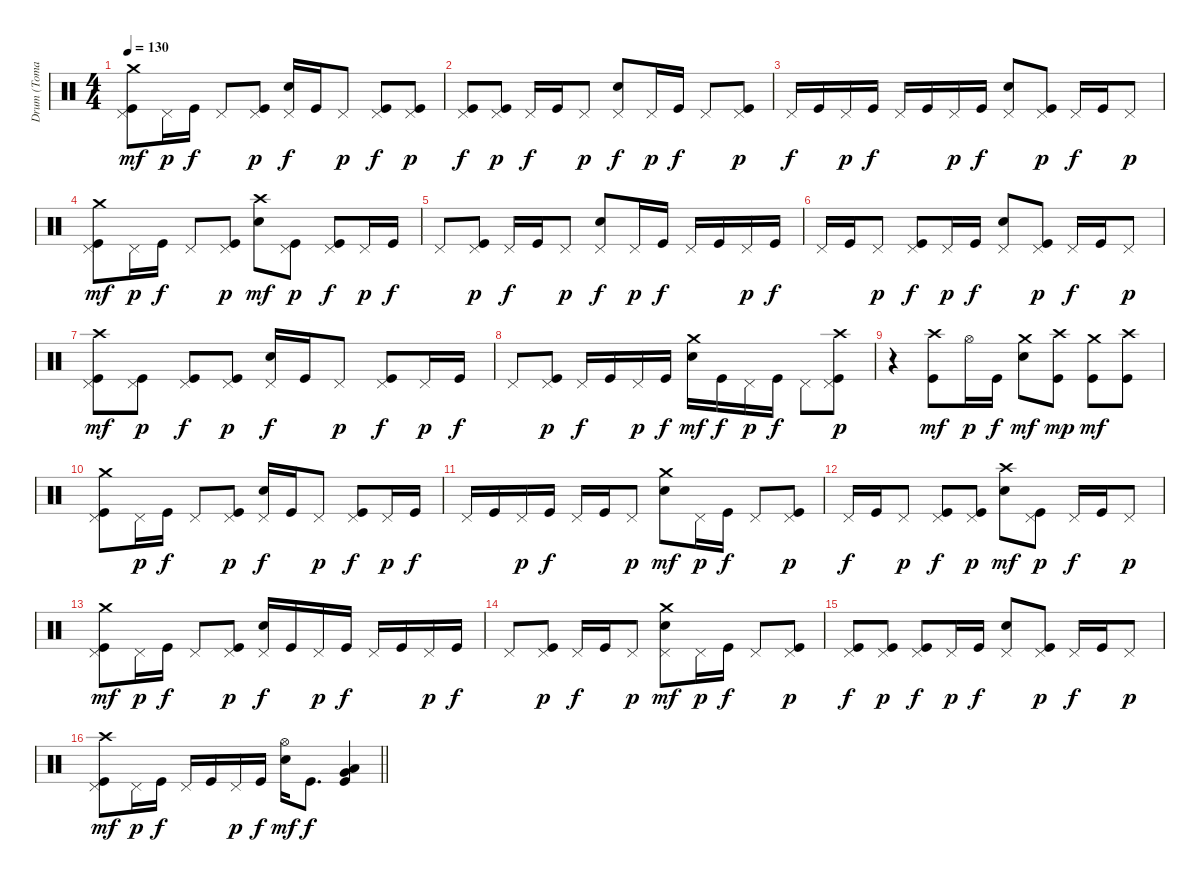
\track ("Drum (Tomas Haake)" "Drum (Toma") {instrument percussion}
\staff {score}
\articulation defaults
\ts (4 4)
\tempo 130
\clef neutral
\ks c
("Crash medium (hit)" "Pedal Hi-Hat (hit)" "Kick (hit)").8{dy mf} "Pedal Hi-Hat (hit)".16{dy p} "Kick (hit)".16{dy f} "Pedal Hi-Hat (hit)".8 ("Pedal Hi-Hat (hit)" "Kick (hit)").8{dy p} ("Pedal Hi-Hat (hit)" "Electric Snare (hit)").16{dy f} "Kick (hit)".16 "Pedal Hi-Hat (hit)".8{dy p} ("Pedal Hi-Hat (hit)" "Kick (hit)").8{dy f} ("Pedal Hi-Hat (hit)" "Kick (hit)").8{dy p} |
("Pedal Hi-Hat (hit)" "Kick (hit)").8{dy f} ("Pedal Hi-Hat (hit)" "Kick (hit)").8{dy p} "Pedal Hi-Hat (hit)".16{dy f} "Kick (hit)".16 "Pedal Hi-Hat (hit)".8{dy p} ("Pedal Hi-Hat (hit)" "Electric Snare (hit)").8{dy f} "Pedal Hi-Hat (hit)".16{dy p} "Kick (hit)".16{dy f} "Pedal Hi-Hat (hit)".8 ("Pedal Hi-Hat (hit)" "Kick (hit)").8{dy p} |
"Pedal Hi-Hat (hit)".16{dy f} "Kick (hit)".16 "Pedal Hi-Hat (hit)".16{dy p} "Kick (hit)".16{dy f} "Pedal Hi-Hat (hit)".16 "Kick (hit)".16 "Pedal Hi-Hat (hit)".16{dy p} "Kick (hit)".16{dy f} ("Pedal Hi-Hat (hit)" "Electric Snare (hit)").8 ("Pedal Hi-Hat (hit)" "Kick (hit)").8{dy p} "Pedal Hi-Hat (hit)".16{dy f} "Kick (hit)".16 "Pedal Hi-Hat (hit)".8{dy p} |
("Crash medium (hit)" "Pedal Hi-Hat (hit)" "Kick (hit)").8{dy mf} "Pedal Hi-Hat (hit)".16{dy p} "Kick (hit)".16{dy f} "Pedal Hi-Hat (hit)".8 ("Pedal Hi-Hat (hit)" "Kick (hit)").8{dy p} ("Crash high (hit)" "Electric Snare (hit)").8{dy mf} ("Pedal Hi-Hat (hit)" "Kick (hit)").8{dy p} ("Pedal Hi-Hat (hit)" "Kick (hit)").8{dy f} "Pedal Hi-Hat (hit)".16{dy p} "Kick (hit)".16{dy f} |
"Pedal Hi-Hat (hit)".8 ("Pedal Hi-Hat (hit)" "Kick (hit)").8{dy p} "Pedal Hi-Hat (hit)".16{dy f} "Kick (hit)".16 "Pedal Hi-Hat (hit)".8{dy p} ("Pedal Hi-Hat (hit)" "Electric Snare (hit)").8{dy f} "Pedal Hi-Hat (hit)".16{dy p} "Kick (hit)".16{dy f} "Pedal Hi-Hat (hit)".16 "Kick (hit)".16 "Pedal Hi-Hat (hit)".16{dy p} "Kick (hit)".16{dy f} |
"Pedal Hi-Hat (hit)".16 "Kick (hit)".16 "Pedal Hi-Hat (hit)".8{dy p} ("Pedal Hi-Hat (hit)" "Kick (hit)").8{dy f} "Pedal Hi-Hat (hit)".16{dy p} "Kick (hit)".16{dy f} ("Pedal Hi-Hat (hit)" "Electric Snare (hit)").8 ("Pedal Hi-Hat (hit)" "Kick (hit)").8{dy p} "Pedal Hi-Hat (hit)".16{dy f} "Kick (hit)".16 "Pedal Hi-Hat (hit)".8{dy p} |
("Crash high (hit)" "Pedal Hi-Hat (hit)" "Kick (hit)").8{dy mf} ("Pedal Hi-Hat (hit)" "Kick (hit)").8{dy p} ("Pedal Hi-Hat (hit)" "Kick (hit)").8{dy f} ("Pedal Hi-Hat (hit)" "Kick (hit)").8{dy p} ("Pedal Hi-Hat (hit)" "Electric Snare (hit)").16{dy f} "Kick (hit)".16 "Pedal Hi-Hat (hit)".8{dy p} ("Pedal Hi-Hat (hit)" "Kick (hit)").8{dy f} "Pedal Hi-Hat (hit)".16{dy p} "Kick (hit)".16{dy f} |
"Pedal Hi-Hat (hit)".8 ("Pedal Hi-Hat (hit)" "Kick (hit)").8{dy p} "Pedal Hi-Hat (hit)".16{dy f} "Kick (hit)".16 "Pedal Hi-Hat (hit)".16{dy p} "Kick (hit)".16{dy f} ("Crash medium (hit)" "Electric Snare (hit)").16{dy mf} "Kick (hit)".16{dy f} "Pedal Hi-Hat (hit)".16{dy p} "Kick (hit)".16{dy f} "Pedal Hi-Hat (hit)".8 ("Crash high (hit)" "Pedal Hi-Hat (hit)" "Kick (hit)").8{dy p} |
r.4 ("Crash high (hit)" "Kick (hit)").8{dy mf} "Hi-Hat (open)".16{dy p} "Kick (hit)".16{dy f} ("Crash medium (hit)" "Electric Snare (hit)").8{dy mf} ("Crash high (hit)" "Kick (hit)").8{dy mp} ("Crash medium (hit)" "Kick (hit)").8{dy mf} ("Crash high (hit)" "Kick (hit)").8 |
("Crash medium (hit)" "Pedal Hi-Hat (hit)" "Kick (hit)").8 "Pedal Hi-Hat (hit)".16{dy p} "Kick (hit)".16{dy f} "Pedal Hi-Hat (hit)".8 ("Pedal Hi-Hat (hit)" "Kick (hit)").8{dy p} ("Pedal Hi-Hat (hit)" "Electric Snare (hit)").16{dy f} "Kick (hit)".16 "Pedal Hi-Hat (hit)".8{dy p} ("Pedal Hi-Hat (hit)" "Kick (hit)").8{dy f} "Pedal Hi-Hat (hit)".16{dy p} "Kick (hit)".16{dy f} |
"Pedal Hi-Hat (hit)".16 "Kick (hit)".16 "Pedal Hi-Hat (hit)".16{dy p} "Kick (hit)".16{dy f} "Pedal Hi-Hat (hit)".16 "Kick (hit)".16 "Pedal Hi-Hat (hit)".8{dy p} ("Crash medium (hit)" "Electric Snare (hit)").8{dy mf} "Pedal Hi-Hat (hit)".16{dy p} "Kick (hit)".16{dy f} "Pedal Hi-Hat (hit)".8 ("Pedal Hi-Hat (hit)" "Kick (hit)").8{dy p} |
"Pedal Hi-Hat (hit)".16{dy f} "Kick (hit)".16 "Pedal Hi-Hat (hit)".8{dy p} ("Pedal Hi-Hat (hit)" "Kick (hit)").8{dy f} ("Pedal Hi-Hat (hit)" "Kick (hit)").8{dy p} ("Crash high (hit)" "Electric Snare (hit)").8{dy mf} ("Pedal Hi-Hat (hit)" "Kick (hit)").8{dy p} "Pedal Hi-Hat (hit)".16{dy f} "Kick (hit)".16 "Pedal Hi-Hat (hit)".8{dy p} |
("Crash medium (hit)" "Pedal Hi-Hat (hit)" "Kick (hit)").8{dy mf} "Pedal Hi-Hat (hit)".16{dy p} "Kick (hit)".16{dy f} "Pedal Hi-Hat (hit)".8 ("Pedal Hi-Hat (hit)" "Kick (hit)").8{dy p} ("Pedal Hi-Hat (hit)" "Electric Snare (hit)").16{dy f} "Kick (hit)".16 "Pedal Hi-Hat (hit)".16{dy p} "Kick (hit)".16{dy f} "Pedal Hi-Hat (hit)".16 "Kick (hit)".16 "Pedal Hi-Hat (hit)".16{dy p} "Kick (hit)".16{dy f} |
"Pedal Hi-Hat (hit)".8 ("Pedal Hi-Hat (hit)" "Kick (hit)").8{dy p} "Pedal Hi-Hat (hit)".16{dy f} "Kick (hit)".16 "Pedal Hi-Hat (hit)".8{dy p} ("Crash medium (hit)" "Pedal Hi-Hat (hit)" "Electric Snare (hit)").8{dy mf} "Pedal Hi-Hat (hit)".16{dy p} "Kick (hit)".16{dy f} "Pedal Hi-Hat (hit)".8 ("Pedal Hi-Hat (hit)" "Kick (hit)").8{dy p} |
("Pedal Hi-Hat (hit)" "Kick (hit)").8{dy f} ("Pedal Hi-Hat (hit)" "Kick (hit)").8{dy p} ("Pedal Hi-Hat (hit)" "Kick (hit)").8{dy f} "Pedal Hi-Hat (hit)".16{dy p} "Kick (hit)".16{dy f} ("Pedal Hi-Hat (hit)" "Electric Snare (hit)").8 ("Pedal Hi-Hat (hit)" "Kick (hit)").8{dy p} "Pedal Hi-Hat (hit)".16{dy f} "Kick (hit)".16 "Pedal Hi-Hat (hit)".8{dy p} |
\barLineRight lightlight
("Crash high (hit)" "Pedal Hi-Hat (hit)" "Kick (hit)").8{dy mf} "Pedal Hi-Hat (hit)".16{dy p} "Kick (hit)".16{dy f} "Pedal Hi-Hat (hit)".16 "Kick (hit)".16 "Pedal Hi-Hat (hit)".16{dy p} "Kick (hit)".16{dy f} ("Hi-Hat (open)" "Electric Snare (hit)").16{dy mf} "Kick (hit)".8{d dy f} ("Very Low Tom (hit)" "Low Floor Tom (hit)" "Kick (hit)").4
